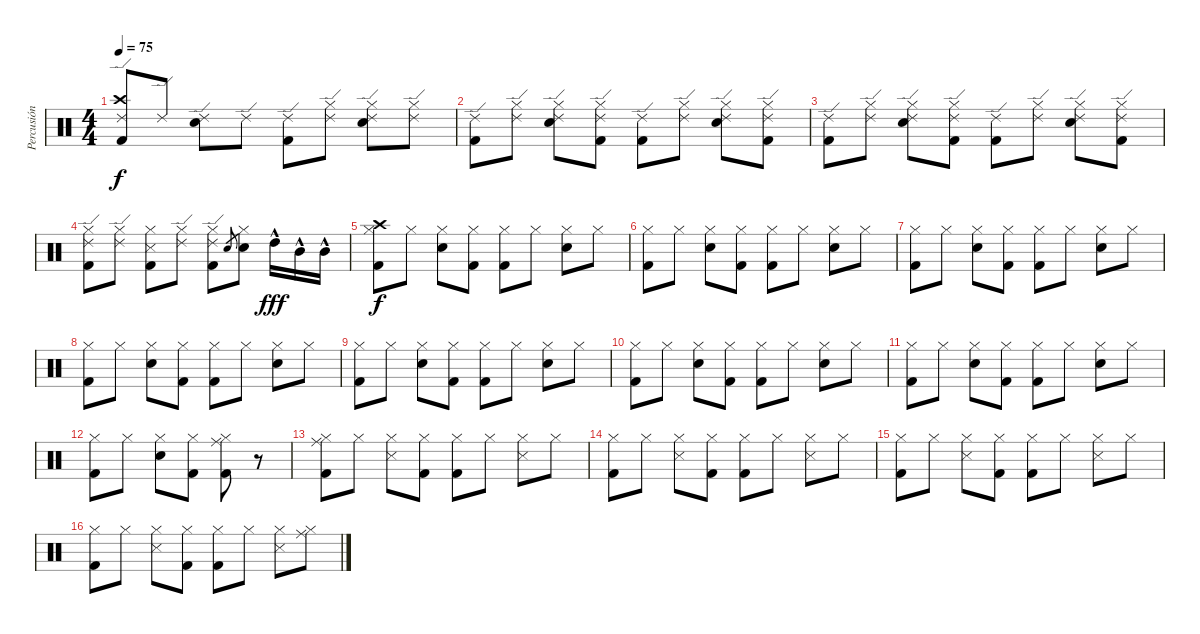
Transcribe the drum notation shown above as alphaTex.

\track ("Percusión" "Percusión") {instrument percussion}
\staff {score}
\articulation defaults
\ts (4 4)
\tempo 75
\clef neutral
\ks c
("Ride (edge) 2" "Crash high (hit)" "Kick (hit) 2").8{dy f} "Ride (edge) 2".8 ("Ride (edge) 2" "Electric Snare (hit)").8 "Ride (edge) 2".8 ("Ride (edge) 2" "Kick (hit) 2").8 ("Ride (edge) 2" "Hi-Hat (closed)").8 ("Ride (edge) 2" "Electric Snare (hit)" "Hi-Hat (closed)").8 ("Ride (edge) 2" "Hi-Hat (closed)").8 |
("Ride (edge) 2" "Kick (hit) 2").8 ("Ride (edge) 2" "Hi-Hat (closed)").8 ("Ride (edge) 2" "Electric Snare (hit)" "Hi-Hat (closed)").8 ("Ride (edge) 2" "Hi-Hat (closed)" "Kick (hit) 2").8 ("Ride (edge) 2" "Kick (hit) 2").8 ("Ride (edge) 2" "Hi-Hat (closed)").8 ("Ride (edge) 2" "Electric Snare (hit)" "Hi-Hat (closed)").8 ("Ride (edge) 2" "Hi-Hat (closed)" "Kick (hit) 2").8 |
("Ride (edge) 2" "Kick (hit) 2").8 ("Ride (edge) 2" "Hi-Hat (closed)").8 ("Ride (edge) 2" "Electric Snare (hit)" "Hi-Hat (closed)").8 ("Ride (edge) 2" "Hi-Hat (closed)" "Kick (hit) 2").8 ("Ride (edge) 2" "Kick (hit) 2").8 ("Ride (edge) 2" "Hi-Hat (closed)").8 ("Ride (edge) 2" "Electric Snare (hit)" "Hi-Hat (closed)").8 ("Ride (edge) 2" "Hi-Hat (closed)" "Kick (hit) 2").8 |
("Hi-Hat (closed)" "Kick (hit) 2" "Ride (edge) 2").8 ("Hi-Hat (closed)" "Ride (edge) 2").8 ("Hi-Hat (closed)" "Snare (side stick) 3" "Kick (hit) 2").8 ("Hi-Hat (closed)" "Ride (edge) 2").8 ("Hi-Hat (closed)" "Kick (hit) 2" "Ride (edge) 2").8 "Electric Snare (hit)".8{gr} ("Hi-Hat (closed)" "Electric Snare (hit)").8 "High Tom (hit)"{hac}.16{dy fff} "Mid Tom (hit)"{hac}.16 "Mid Tom (hit)"{hac}.16 |
("Hi-Hat (closed)" "Kick (hit) 2" "Crash high (hit)").8{dy f} "Hi-Hat (closed)".8 ("Hi-Hat (closed)" "Electric Snare (hit)").8 ("Hi-Hat (closed)" "Kick (hit) 2").8 ("Hi-Hat (closed)" "Kick (hit) 2").8 "Hi-Hat (closed)".8 ("Hi-Hat (closed)" "Electric Snare (hit)").8 "Hi-Hat (closed)".8 |
("Hi-Hat (closed)" "Kick (hit) 2").8 "Hi-Hat (closed)".8 ("Hi-Hat (closed)" "Electric Snare (hit)").8 ("Hi-Hat (closed)" "Kick (hit) 2").8 ("Hi-Hat (closed)" "Kick (hit) 2").8 "Hi-Hat (closed)".8 ("Hi-Hat (closed)" "Electric Snare (hit)").8 "Hi-Hat (closed)".8 |
("Hi-Hat (closed)" "Kick (hit) 2").8 "Hi-Hat (closed)".8 ("Hi-Hat (closed)" "Electric Snare (hit)").8 ("Hi-Hat (closed)" "Kick (hit) 2").8 ("Hi-Hat (closed)" "Kick (hit) 2").8 "Hi-Hat (closed)".8 ("Hi-Hat (closed)" "Electric Snare (hit)").8 "Hi-Hat (closed)".8 |
("Hi-Hat (closed)" "Kick (hit) 2").8 "Hi-Hat (closed)".8 ("Hi-Hat (closed)" "Electric Snare (hit)").8 ("Hi-Hat (closed)" "Kick (hit) 2").8 ("Hi-Hat (closed)" "Kick (hit) 2").8 "Hi-Hat (closed)".8 ("Hi-Hat (closed)" "Electric Snare (hit)").8 "Hi-Hat (closed)".8 |
("Hi-Hat (closed)" "Kick (hit) 2").8 "Hi-Hat (closed)".8 ("Hi-Hat (closed)" "Electric Snare (hit)").8 ("Hi-Hat (closed)" "Kick (hit) 2").8 ("Hi-Hat (closed)" "Kick (hit) 2").8 "Hi-Hat (closed)".8 ("Hi-Hat (closed)" "Electric Snare (hit)").8 "Hi-Hat (closed)".8 |
("Hi-Hat (closed)" "Kick (hit) 2").8 "Hi-Hat (closed)".8 ("Hi-Hat (closed)" "Electric Snare (hit)").8 ("Hi-Hat (closed)" "Kick (hit) 2").8 ("Hi-Hat (closed)" "Kick (hit) 2").8 "Hi-Hat (closed)".8 ("Hi-Hat (closed)" "Electric Snare (hit)").8 "Hi-Hat (closed)".8 |
("Hi-Hat (closed)" "Kick (hit) 2").8 "Hi-Hat (closed)".8 ("Hi-Hat (closed)" "Electric Snare (hit)").8 ("Hi-Hat (closed)" "Kick (hit) 2").8 ("Hi-Hat (closed)" "Kick (hit) 2").8 "Hi-Hat (closed)".8 ("Hi-Hat (closed)" "Electric Snare (hit)").8 "Hi-Hat (closed)".8 |
("Hi-Hat (closed)" "Kick (hit) 2").8 "Hi-Hat (closed)".8 ("Hi-Hat (closed)" "Electric Snare (hit)").8 ("Hi-Hat (closed)" "Kick (hit) 2").8 ("Ride (middle)" "Hi-Hat (closed)" "Kick (hit) 2").8 r.8 |
("Ride (middle)" "Hi-Hat (closed)" "Kick (hit) 2").8 "Hi-Hat (closed)".8 ("Hi-Hat (closed)" "Snare (side stick) 3").8 ("Hi-Hat (closed)" "Kick (hit) 2").8 ("Hi-Hat (closed)" "Kick (hit) 2").8 "Hi-Hat (closed)".8 ("Hi-Hat (closed)" "Snare (side stick) 3").8 "Hi-Hat (closed)".8 |
("Hi-Hat (closed)" "Kick (hit) 2").8 "Hi-Hat (closed)".8 ("Hi-Hat (closed)" "Snare (side stick) 3").8 ("Hi-Hat (closed)" "Kick (hit) 2").8 ("Hi-Hat (closed)" "Kick (hit) 2").8 "Hi-Hat (closed)".8 ("Hi-Hat (closed)" "Snare (side stick) 3").8 "Hi-Hat (closed)".8 |
("Hi-Hat (closed)" "Kick (hit) 2").8 "Hi-Hat (closed)".8 ("Hi-Hat (closed)" "Snare (side stick) 3").8 ("Hi-Hat (closed)" "Kick (hit) 2").8 ("Hi-Hat (closed)" "Kick (hit) 2").8 "Hi-Hat (closed)".8 ("Hi-Hat (closed)" "Snare (side stick) 3").8 "Hi-Hat (closed)".8 |
("Hi-Hat (closed)" "Kick (hit) 2").8 "Hi-Hat (closed)".8 ("Hi-Hat (closed)" "Snare (side stick) 3").8 ("Hi-Hat (closed)" "Kick (hit) 2").8 ("Hi-Hat (closed)" "Kick (hit) 2").8 "Hi-Hat (closed)".8 ("Hi-Hat (closed)" "Snare (side stick) 3").8 ("Hi-Hat (closed)" "Ride (middle)").8
